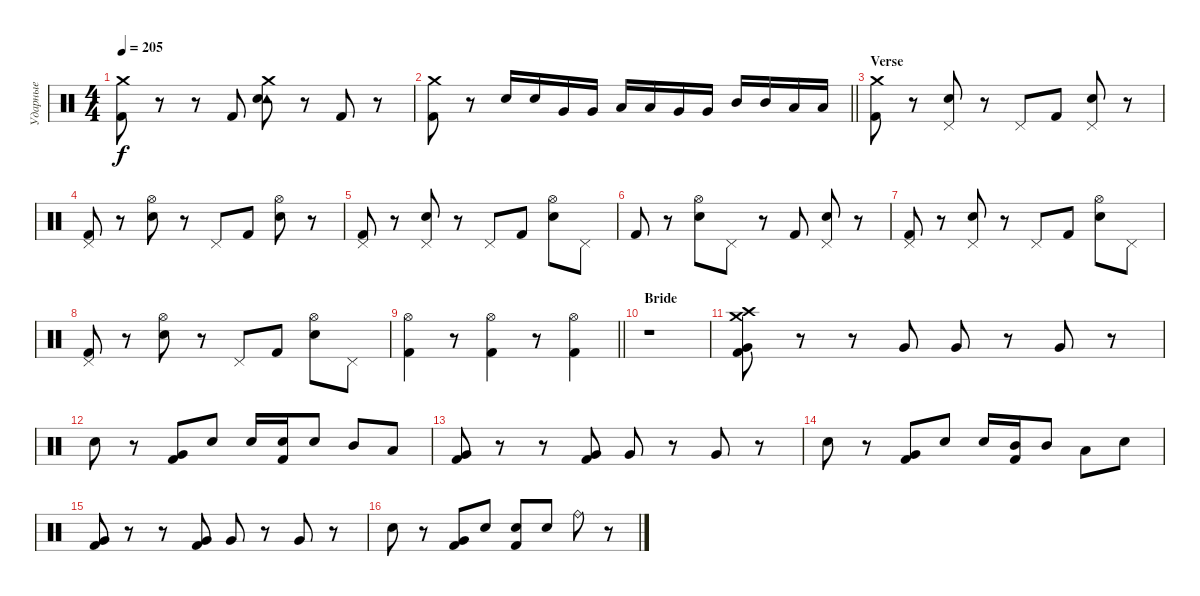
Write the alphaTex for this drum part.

\track ("Ударные" "Ударные") {instrument percussion}
\staff {score}
\articulation defaults
\ts (4 4)
\tempo 205
\clef neutral
\ks c
("Crash medium (hit)" "Kick (hit) 2").8{dy f} r.8 r.8 "Kick (hit) 2".8 ("Crash medium (hit)" "Tambourine (hit)" "Electric Snare (hit)").8 r.8 "Kick (hit) 2".8 r.8 |
\barLineRight lightlight
("Crash medium (hit)" "Kick (hit) 2").8 r.8 "Electric Snare (hit)".16 "Electric Snare (hit)".16 "Very Low Tom (hit)".16 "Very Low Tom (hit)".16 "Low Tom (hit)".16 "Low Tom (hit)".16 "Very Low Tom (hit)".16 "Very Low Tom (hit)".16 "Mid Tom (hit)".16 "Mid Tom (hit)".16 "Low Tom (hit)".16 "Low Tom (hit)".16 |
\section ("" "Verse")
("Crash medium (hit)" "Kick (hit) 2").8 r.8 ("Pedal Hi-Hat (hit)" "Electric Snare (hit)").8 r.8 "Pedal Hi-Hat (hit)".8 "Kick (hit) 2".8 ("Pedal Hi-Hat (hit)" "Electric Snare (hit)").8 r.8 |
("Pedal Hi-Hat (hit)" "Kick (hit) 2").8 r.8 ("Hi-Hat (open)" "Electric Snare (hit)").8 r.8 "Pedal Hi-Hat (hit)".8 "Kick (hit) 2".8 ("Hi-Hat (open)" "Electric Snare (hit)").8 r.8 |
("Pedal Hi-Hat (hit)" "Kick (hit) 2").8 r.8 ("Pedal Hi-Hat (hit)" "Electric Snare (hit)").8 r.8 "Pedal Hi-Hat (hit)".8 "Kick (hit) 2".8 ("Hi-Hat (open)" "Electric Snare (hit)").8 "Pedal Hi-Hat (hit)".8 |
"Kick (hit) 2".8 r.8 ("Hi-Hat (open)" "Electric Snare (hit)").8 "Pedal Hi-Hat (hit)".8 r.8 "Kick (hit) 2".8 ("Pedal Hi-Hat (hit)" "Electric Snare (hit)").8 r.8 |
("Pedal Hi-Hat (hit)" "Kick (hit) 2").8 r.8 ("Pedal Hi-Hat (hit)" "Electric Snare (hit)").8 r.8 "Pedal Hi-Hat (hit)".8 "Kick (hit) 2".8 ("Hi-Hat (open)" "Electric Snare (hit)").8 "Pedal Hi-Hat (hit)".8 |
("Pedal Hi-Hat (hit)" "Kick (hit) 2").8 r.8 ("Hi-Hat (open)" "Electric Snare (hit)").8 r.8 "Pedal Hi-Hat (hit)".8 "Kick (hit) 2".8 ("Hi-Hat (open)" "Electric Snare (hit)").8 "Pedal Hi-Hat (hit)".8 |
\barLineRight lightlight
("Hi-Hat (open)" "Kick (hit) 2").4 r.8 ("Hi-Hat (open)" "Kick (hit) 2").4 r.8 ("Hi-Hat (open)" "Kick (hit) 2").4 |
\section ("" "Bride")
r.1 |
("Crash medium (hit)" "Crash high (hit)" "Very Low Tom (hit)" "Kick (hit) 2").8 r.8 r.8 "Very Low Tom (hit)".8 "Very Low Tom (hit)".8 r.8 "Very Low Tom (hit)".8 r.8 |
"Electric Snare (hit)".8 r.8 ("Very Low Tom (hit)" "Kick (hit) 2").8 "Electric Snare (hit)".8 "Electric Snare (hit)".16 ("Electric Snare (hit)" "Kick (hit) 2").16 "Electric Snare (hit)".8 "Mid Tom (hit)".8 "Low Tom (hit)".8 |
("Very Low Tom (hit)" "Kick (hit) 2").8 r.8 r.8 ("Very Low Tom (hit)" "Kick (hit) 2").8 "Very Low Tom (hit)".8 r.8 "Very Low Tom (hit)".8 r.8 |
"Electric Snare (hit)".8 r.8 ("Very Low Tom (hit)" "Kick (hit) 2").8 "Electric Snare (hit)".8 "Electric Snare (hit)".16 ("Mid Tom (hit)" "Kick (hit) 2").16 "Mid Tom (hit)".8 "Low Tom (hit)".8 "Electric Snare (hit)".8 |
("Very Low Tom (hit)" "Kick (hit) 2").8 r.8 r.8 ("Very Low Tom (hit)" "Kick (hit) 2").8 "Very Low Tom (hit)".8 r.8 "Very Low Tom (hit)".8 r.8 |
"Electric Snare (hit)".8 r.8 ("Very Low Tom (hit)" "Kick (hit) 2").8 "Electric Snare (hit)".8 ("Electric Snare (hit)" "Kick (hit) 2").8 "Electric Snare (hit)".8 "Ride (bell)".8 r.8
